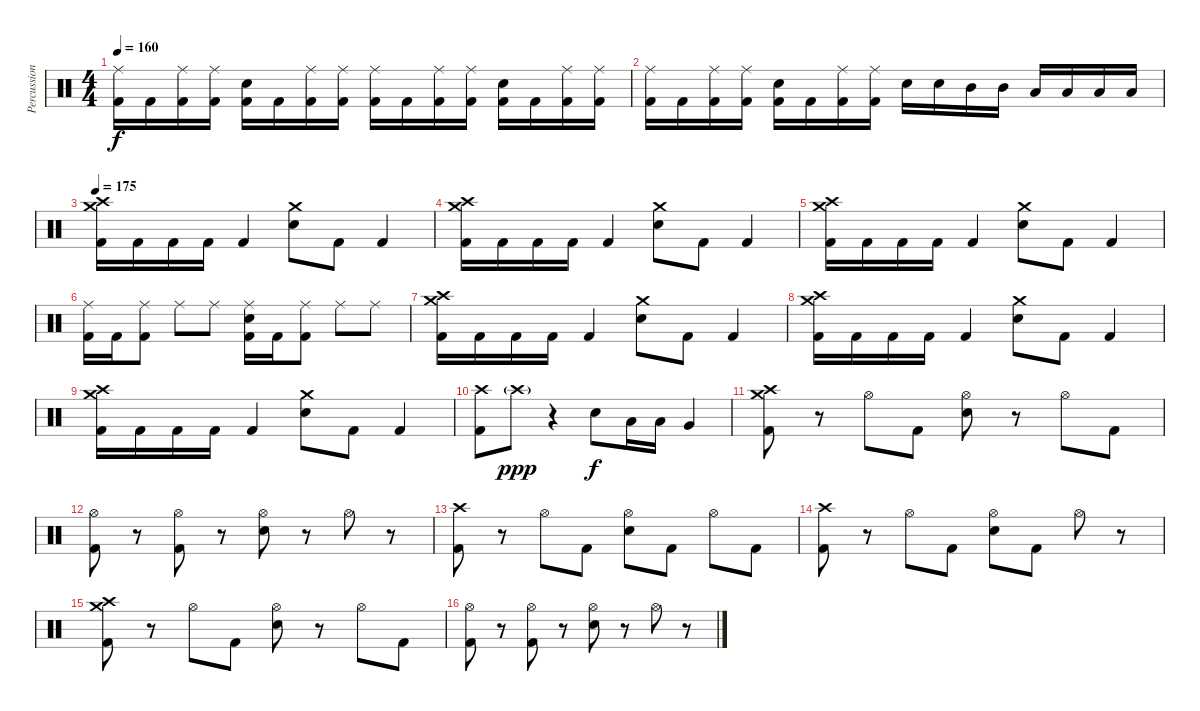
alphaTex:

\track ("Percussion" "Percussion") {instrument percussion}
\staff {score}
\articulation defaults
\ts (4 4)
\tempo 160
\clef neutral
\ks c
("Kick (hit) 2" "Ride (middle)").16{dy f} "Kick (hit) 2".16 ("Kick (hit) 2" "Ride (middle)").16 ("Kick (hit) 2" "Ride (middle)").16 ("Kick (hit) 2" "Electric Snare (hit)").16 "Kick (hit) 2".16 ("Kick (hit) 2" "Ride (middle)").16 ("Kick (hit) 2" "Ride (middle)").16 ("Kick (hit) 2" "Ride (middle)").16 "Kick (hit) 2".16 ("Kick (hit) 2" "Ride (middle)").16 ("Kick (hit) 2" "Ride (middle)").16 ("Kick (hit) 2" "Electric Snare (hit)").16 "Kick (hit) 2".16 ("Kick (hit) 2" "Ride (middle)").16 ("Kick (hit) 2" "Ride (middle)").16 |
("Kick (hit) 2" "Ride (middle)").16 "Kick (hit) 2".16 ("Kick (hit) 2" "Ride (middle)").16 ("Kick (hit) 2" "Ride (middle)").16 ("Kick (hit) 2" "Electric Snare (hit)").16 "Kick (hit) 2".16 ("Kick (hit) 2" "Ride (middle)").16 ("Kick (hit) 2" "Ride (middle)").16 "Electric Snare (hit)".16 "Electric Snare (hit)".16 "Mid Tom (hit)".16 "Mid Tom (hit)".16 "Low Tom (hit)".16 "Low Tom (hit)".16 "Low Tom (hit)".16 "Low Tom (hit)".16 |
\tempo 175
("Kick (hit) 2" "Crash medium (hit)" "Crash high (hit)").16 "Kick (hit) 2".16 "Kick (hit) 2".16 "Kick (hit) 2".16 "Kick (hit) 2".4 ("Electric Snare (hit)" "Crash medium (hit)").8 "Kick (hit) 2".8 "Kick (hit) 2".4 |
("Kick (hit) 2" "Crash medium (hit)" "Crash high (hit)").16 "Kick (hit) 2".16 "Kick (hit) 2".16 "Kick (hit) 2".16 "Kick (hit) 2".4 ("Electric Snare (hit)" "Crash medium (hit)").8 "Kick (hit) 2".8 "Kick (hit) 2".4 |
("Kick (hit) 2" "Crash medium (hit)" "Crash high (hit)").16 "Kick (hit) 2".16 "Kick (hit) 2".16 "Kick (hit) 2".16 "Kick (hit) 2".4 ("Electric Snare (hit)" "Crash medium (hit)").8 "Kick (hit) 2".8 "Kick (hit) 2".4 |
("Kick (hit) 2" "Ride (middle)").16 "Kick (hit) 2".16 ("Kick (hit) 2" "Ride (middle)").8 "Ride (middle)".8 "Ride (middle)".8 ("Kick (hit) 2" "Electric Snare (hit)" "Ride (middle)").16 "Kick (hit) 2".16 ("Kick (hit) 2" "Ride (middle)").8 "Ride (middle)".8 "Ride (middle)".8 |
("Kick (hit) 2" "Crash medium (hit)" "Crash high (hit)").16 "Kick (hit) 2".16 "Kick (hit) 2".16 "Kick (hit) 2".16 "Kick (hit) 2".4 ("Electric Snare (hit)" "Crash medium (hit)").8 "Kick (hit) 2".8 "Kick (hit) 2".4 |
("Kick (hit) 2" "Crash medium (hit)" "Crash high (hit)").16 "Kick (hit) 2".16 "Kick (hit) 2".16 "Kick (hit) 2".16 "Kick (hit) 2".4 ("Electric Snare (hit)" "Crash medium (hit)").8 "Kick (hit) 2".8 "Kick (hit) 2".4 |
("Kick (hit) 2" "Crash medium (hit)" "Crash high (hit)").16 "Kick (hit) 2".16 "Kick (hit) 2".16 "Kick (hit) 2".16 "Kick (hit) 2".4 ("Electric Snare (hit)" "Crash medium (hit)").8 "Kick (hit) 2".8 "Kick (hit) 2".4 |
("Kick (hit) 2" "Crash high (hit)").8 "Crash high (hit)"{g}.8{dy ppp} r.4 "Electric Snare (hit)".8{dy f} "Low Tom (hit)".16 "Low Tom (hit)".16 "Very Low Tom (hit)".4 |
("Kick (hit) 2" "Crash high (hit)" "Crash medium (hit)").8 r.8 "Hi-Hat (open)".8 "Kick (hit) 2".8 ("Electric Snare (hit)" "Hi-Hat (open)").8 r.8 "Hi-Hat (open)".8 "Kick (hit) 2".8 |
("Kick (hit) 2" "Hi-Hat (open)").8 r.8 ("Kick (hit) 2" "Hi-Hat (open)").8 r.8 ("Electric Snare (hit)" "Hi-Hat (open)").8 r.8 "Hi-Hat (open)".8 r.8 |
("Kick (hit) 2" "Crash high (hit)").8 r.8 "Hi-Hat (open)".8 "Kick (hit) 2".8 ("Electric Snare (hit)" "Hi-Hat (open)").8 "Kick (hit) 2".8 "Hi-Hat (open)".8 "Kick (hit) 2".8 |
("Kick (hit) 2" "Crash high (hit)").8 r.8 "Hi-Hat (open)".8 "Kick (hit) 2".8 ("Electric Snare (hit)" "Hi-Hat (open)").8 "Kick (hit) 2".8 "Hi-Hat (open)".8 r.8 |
("Kick (hit) 2" "Crash high (hit)" "Crash medium (hit)").8 r.8 "Hi-Hat (open)".8 "Kick (hit) 2".8 ("Electric Snare (hit)" "Hi-Hat (open)").8 r.8 "Hi-Hat (open)".8 "Kick (hit) 2".8 |
("Kick (hit) 2" "Hi-Hat (open)").8 r.8 ("Kick (hit) 2" "Hi-Hat (open)").8 r.8 ("Electric Snare (hit)" "Hi-Hat (open)").8 r.8 "Hi-Hat (open)".8 r.8
